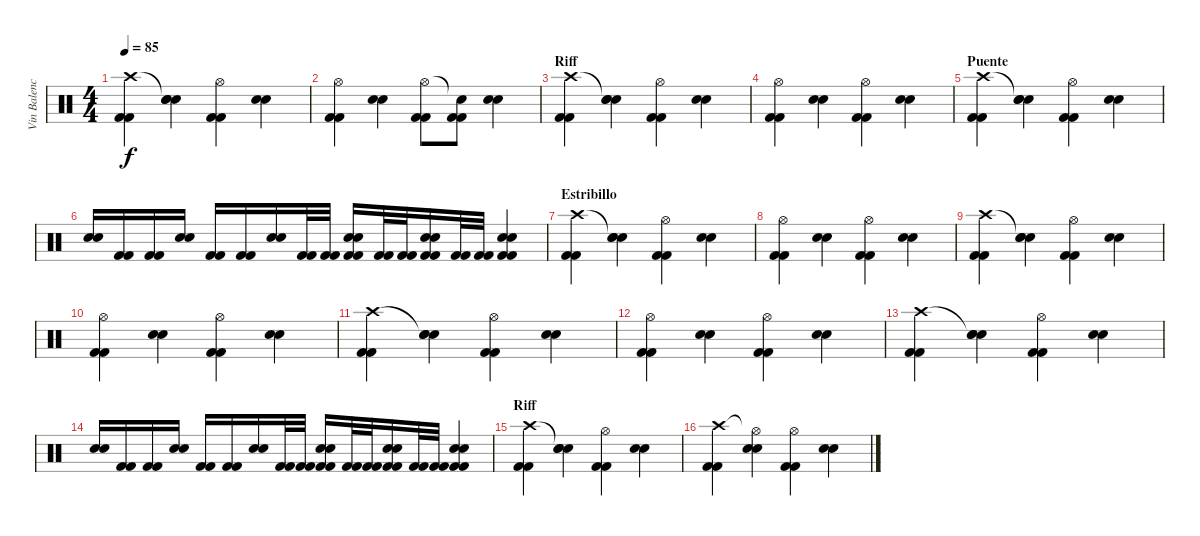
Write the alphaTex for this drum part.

\track ("Vin Balencia (bateria)" "Vin Balenc") {instrument percussion}
\staff {score}
\articulation defaults
\ts (4 4)
\tempo 85
\clef neutral
\ks c
("Crash high (hit)" "Kick (hit) 2" "Kick (hit) 2").4{dy f} ("Snare (hit)"{t} "Snare (hit) 2" "Snare (hit) 2").4 ("Hi-Hat (open)" "Kick (hit) 2" "Kick (hit) 2").4 ("Snare (hit) 2" "Snare (hit) 2").4 |
("Hi-Hat (open)" "Kick (hit) 2" "Kick (hit) 2").4 ("Snare (hit) 2" "Snare (hit) 2").4 ("Hi-Hat (open)" "Kick (hit) 2" "Kick (hit) 2").8 ("Snare (hit)"{t} "Kick (hit) 2" "Kick (hit) 2").8 ("Snare (hit) 2" "Snare (hit) 2").4 |
\section ("" "Riff")
("Crash high (hit)" "Kick (hit) 2" "Kick (hit) 2").4 ("Snare (hit)"{t} "Snare (hit) 2" "Snare (hit) 2").4 ("Hi-Hat (open)" "Kick (hit) 2" "Kick (hit) 2").4 ("Snare (hit) 2" "Snare (hit) 2").4 |
("Hi-Hat (open)" "Kick (hit) 2" "Kick (hit) 2").4 ("Snare (hit) 2" "Snare (hit) 2").4 ("Hi-Hat (open)" "Kick (hit) 2" "Kick (hit) 2").4 ("Snare (hit) 2" "Snare (hit) 2").4 |
\section ("" "Puente")
("Crash high (hit)" "Kick (hit) 2" "Kick (hit) 2").4 ("Snare (hit)"{t} "Snare (hit) 2" "Snare (hit) 2").4 ("Hi-Hat (open)" "Kick (hit) 2" "Kick (hit) 2").4 ("Snare (hit) 2" "Snare (hit) 2").4 |
("Electric Snare (hit)" "Snare (hit) 2").16 ("Kick (hit) 2" "Kick (hit) 2").16 ("Kick (hit) 2" "Kick (hit) 2").16 ("Snare (hit) 2" "Snare (hit) 2").16 ("Kick (hit) 2" "Kick (hit) 2").16 ("Kick (hit) 2" "Kick (hit) 2").16 ("Snare (hit) 2" "Snare (hit) 2").16 ("Kick (hit) 2" "Kick (hit) 2").32 ("Kick (hit) 2" "Kick (hit) 2").32 ("Snare (hit) 2" "Snare (hit) 2" "Kick (hit) 2" "Kick (hit) 2").16 ("Kick (hit) 2" "Kick (hit) 2").32 ("Kick (hit) 2" "Kick (hit) 2").32 ("Snare (hit) 2" "Snare (hit) 2" "Kick (hit) 2" "Kick (hit) 2").16 ("Kick (hit) 2" "Kick (hit) 2").32 ("Kick (hit) 2" "Kick (hit) 2").32 ("Snare (hit) 2" "Snare (hit) 2" "Kick (hit) 2" "Kick (hit) 2").4 |
\section ("" "Estribillo")
("Crash high (hit)" "Kick (hit) 2" "Kick (hit) 2").4 ("Snare (hit)"{t} "Snare (hit) 2" "Snare (hit) 2").4 ("Hi-Hat (open)" "Kick (hit) 2" "Kick (hit) 2").4 ("Snare (hit) 2" "Snare (hit) 2").4 |
("Hi-Hat (open)" "Kick (hit) 2" "Kick (hit) 2").4 ("Snare (hit) 2" "Snare (hit) 2").4 ("Hi-Hat (open)" "Kick (hit) 2" "Kick (hit) 2").4 ("Snare (hit) 2" "Snare (hit) 2").4 |
("Crash high (hit)" "Kick (hit) 2" "Kick (hit) 2").4 ("Snare (hit)"{t} "Snare (hit) 2" "Snare (hit) 2").4 ("Hi-Hat (open)" "Kick (hit) 2" "Kick (hit) 2").4 ("Snare (hit) 2" "Snare (hit) 2").4 |
("Hi-Hat (open)" "Kick (hit) 2" "Kick (hit) 2").4 ("Snare (hit) 2" "Snare (hit) 2").4 ("Hi-Hat (open)" "Kick (hit) 2" "Kick (hit) 2").4 ("Snare (hit) 2" "Snare (hit) 2").4 |
("Crash high (hit)" "Kick (hit) 2" "Kick (hit) 2").4 ("Snare (hit)"{t} "Snare (hit) 2" "Snare (hit) 2").4 ("Hi-Hat (open)" "Kick (hit) 2" "Kick (hit) 2").4 ("Snare (hit) 2" "Snare (hit) 2").4 |
("Hi-Hat (open)" "Kick (hit) 2" "Kick (hit) 2").4 ("Snare (hit) 2" "Snare (hit) 2").4 ("Hi-Hat (open)" "Kick (hit) 2" "Kick (hit) 2").4 ("Snare (hit) 2" "Snare (hit) 2").4 |
("Crash high (hit)" "Kick (hit) 2" "Kick (hit) 2").4 ("Snare (hit)"{t} "Snare (hit) 2" "Snare (hit) 2").4 ("Hi-Hat (open)" "Kick (hit) 2" "Kick (hit) 2").4 ("Snare (hit) 2" "Snare (hit) 2").4 |
("Electric Snare (hit)" "Snare (hit) 2").16 ("Kick (hit) 2" "Kick (hit) 2").16 ("Kick (hit) 2" "Kick (hit) 2").16 ("Snare (hit) 2" "Snare (hit) 2").16 ("Kick (hit) 2" "Kick (hit) 2").16 ("Kick (hit) 2" "Kick (hit) 2").16 ("Snare (hit) 2" "Snare (hit) 2").16 ("Kick (hit) 2" "Kick (hit) 2").32 ("Kick (hit) 2" "Kick (hit) 2").32 ("Snare (hit) 2" "Snare (hit) 2" "Kick (hit) 2" "Kick (hit) 2").16 ("Kick (hit) 2" "Kick (hit) 2").32 ("Kick (hit) 2" "Kick (hit) 2").32 ("Snare (hit) 2" "Snare (hit) 2" "Kick (hit) 2" "Kick (hit) 2").16 ("Kick (hit) 2" "Kick (hit) 2").32 ("Kick (hit) 2" "Kick (hit) 2").32 ("Snare (hit) 2" "Snare (hit) 2" "Kick (hit) 2" "Kick (hit) 2").4 |
\section ("" "Riff")
("Crash high (hit)" "Kick (hit) 2" "Kick (hit) 2").4 ("Snare (hit)"{t} "Snare (hit) 2" "Snare (hit) 2").4 ("Hi-Hat (open)" "Kick (hit) 2" "Kick (hit) 2").4 ("Snare (hit) 2" "Snare (hit) 2").4 |
("Crash high (hit)" "Kick (hit) 2" "Kick (hit) 2").4 ("Hi-Hat (open)"{t} "Snare (hit) 2" "Snare (hit) 2").4 ("Hi-Hat (open)" "Kick (hit) 2" "Kick (hit) 2").4 ("Snare (hit) 2" "Snare (hit) 2").4
